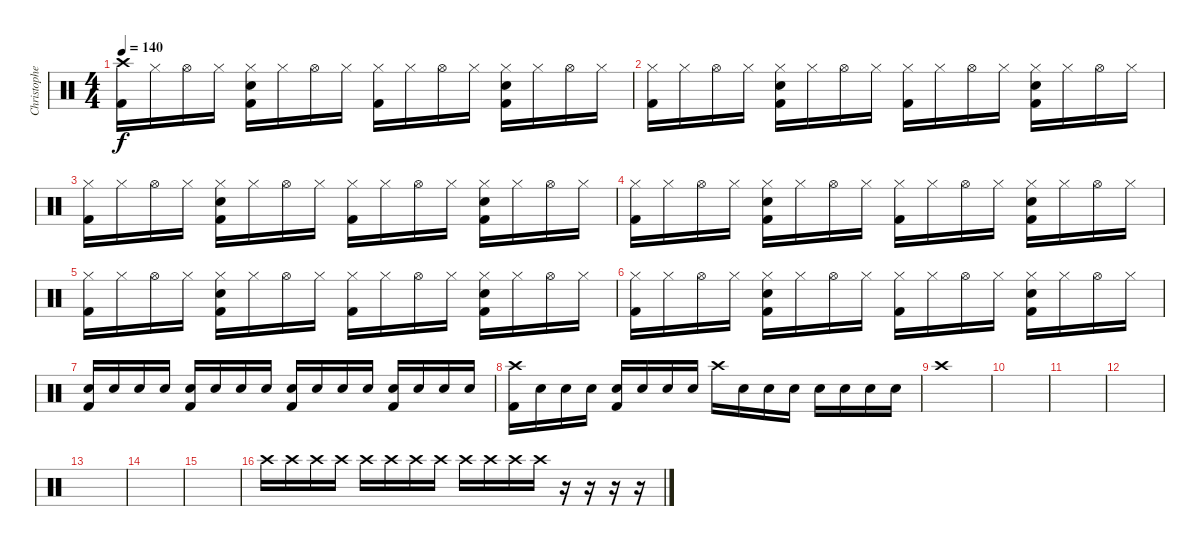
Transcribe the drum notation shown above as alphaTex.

\track ("Christopher Lawrence " "Christophe") {instrument percussion}
\staff {score}
\articulation defaults
\ts (4 4)
\tempo 140
\clef neutral
\ks c
("Crash high (hit)" "Kick (hit) 2").16{dy f} "Hi-Hat (closed)".16 "Hi-Hat (open)".16 "Hi-Hat (closed)".16 ("Hi-Hat (closed)" "Hand Clap (hit)" "Kick (hit) 2").16 "Hi-Hat (closed)".16 "Hi-Hat (open)".16 "Hi-Hat (closed)".16 ("Hi-Hat (closed)" "Kick (hit) 2").16 "Hi-Hat (closed)".16 "Hi-Hat (open)".16 "Hi-Hat (closed)".16 ("Hi-Hat (closed)" "Hand Clap (hit)" "Kick (hit) 2").16 "Hi-Hat (closed)".16 "Hi-Hat (open)".16 "Hi-Hat (closed)".16 |
("Hi-Hat (closed)" "Kick (hit) 2").16 "Hi-Hat (closed)".16 "Hi-Hat (open)".16 "Hi-Hat (closed)".16 ("Hi-Hat (closed)" "Hand Clap (hit)" "Kick (hit) 2").16 "Hi-Hat (closed)".16 "Hi-Hat (open)".16 "Hi-Hat (closed)".16 ("Hi-Hat (closed)" "Kick (hit) 2").16 "Hi-Hat (closed)".16 "Hi-Hat (open)".16 "Hi-Hat (closed)".16 ("Hi-Hat (closed)" "Hand Clap (hit)" "Kick (hit) 2").16 "Hi-Hat (closed)".16 "Hi-Hat (open)".16 "Hi-Hat (closed)".16 |
("Hi-Hat (closed)" "Kick (hit) 2").16 "Hi-Hat (closed)".16 "Hi-Hat (open)".16 "Hi-Hat (closed)".16 ("Hi-Hat (closed)" "Hand Clap (hit)" "Kick (hit) 2").16 "Hi-Hat (closed)".16 "Hi-Hat (open)".16 "Hi-Hat (closed)".16 ("Hi-Hat (closed)" "Kick (hit) 2").16 "Hi-Hat (closed)".16 "Hi-Hat (open)".16 "Hi-Hat (closed)".16 ("Hi-Hat (closed)" "Hand Clap (hit)" "Kick (hit) 2").16 "Hi-Hat (closed)".16 "Hi-Hat (open)".16 "Hi-Hat (closed)".16 |
("Hi-Hat (closed)" "Kick (hit) 2").16 "Hi-Hat (closed)".16 "Hi-Hat (open)".16 "Hi-Hat (closed)".16 ("Hi-Hat (closed)" "Hand Clap (hit)" "Kick (hit) 2").16 "Hi-Hat (closed)".16 "Hi-Hat (open)".16 "Hi-Hat (closed)".16 ("Hi-Hat (closed)" "Kick (hit) 2").16 "Hi-Hat (closed)".16 "Hi-Hat (open)".16 "Hi-Hat (closed)".16 ("Hi-Hat (closed)" "Hand Clap (hit)" "Kick (hit) 2").16 "Hi-Hat (closed)".16 "Hi-Hat (open)".16 "Hi-Hat (closed)".16 |
("Hi-Hat (closed)" "Kick (hit) 2").16 "Hi-Hat (closed)".16 "Hi-Hat (open)".16 "Hi-Hat (closed)".16 ("Hi-Hat (closed)" "Hand Clap (hit)" "Kick (hit) 2").16 "Hi-Hat (closed)".16 "Hi-Hat (open)".16 "Hi-Hat (closed)".16 ("Hi-Hat (closed)" "Kick (hit) 2").16 "Hi-Hat (closed)".16 "Hi-Hat (open)".16 "Hi-Hat (closed)".16 ("Hi-Hat (closed)" "Hand Clap (hit)" "Kick (hit) 2").16 "Hi-Hat (closed)".16 "Hi-Hat (open)".16 "Hi-Hat (closed)".16 |
("Hi-Hat (closed)" "Kick (hit) 2").16 "Hi-Hat (closed)".16 "Hi-Hat (open)".16 "Hi-Hat (closed)".16 ("Hi-Hat (closed)" "Hand Clap (hit)" "Kick (hit) 2").16 "Hi-Hat (closed)".16 "Hi-Hat (open)".16 "Hi-Hat (closed)".16 ("Hi-Hat (closed)" "Kick (hit) 2").16 "Hi-Hat (closed)".16 "Hi-Hat (open)".16 "Hi-Hat (closed)".16 ("Hi-Hat (closed)" "Hand Clap (hit)" "Kick (hit) 2").16 "Hi-Hat (closed)".16 "Hi-Hat (open)".16 "Hi-Hat (closed)".16 |
("Snare (hit) 2" "Kick (hit) 2").16 "Snare (hit) 2".16 "Snare (hit) 2".16 "Snare (hit) 2".16 ("Snare (hit) 2" "Kick (hit) 2").16 "Snare (hit) 2".16 "Snare (hit) 2".16 "Snare (hit) 2".16 ("Snare (hit) 2" "Kick (hit) 2").16 "Snare (hit) 2".16 "Snare (hit) 2".16 "Snare (hit) 2".16 ("Snare (hit) 2" "Kick (hit) 2").16 "Snare (hit) 2".16 "Snare (hit) 2".16 "Snare (hit) 2".16 |
("Crash high (hit)" "Kick (hit) 2").16 "Snare (hit) 2".16 "Snare (hit) 2".16 "Snare (hit) 2".16 ("Snare (hit) 2" "Kick (hit) 2").16 "Snare (hit) 2".16 "Snare (hit) 2".16 "Snare (hit) 2".16 "Crash high (hit)".16 "Snare (hit) 2".16 "Snare (hit) 2".16 "Snare (hit) 2".16 "Snare (hit) 2".16 "Snare (hit) 2".16 "Snare (hit) 2".16 "Snare (hit) 2".16 |
"Crash high (hit)".1 |
|
|
|
|
|
|
"Crash high (hit)".16 "Crash high (hit)".16 "Crash high (hit)".16 "Crash high (hit)".16 "Crash high (hit)".16 "Crash high (hit)".16 "Crash high (hit)".16 "Crash high (hit)".16 "Crash high (hit)".16 "Crash high (hit)".16 "Crash high (hit)".16 "Crash high (hit)".16 r.16 r.16 r.16 r.16
